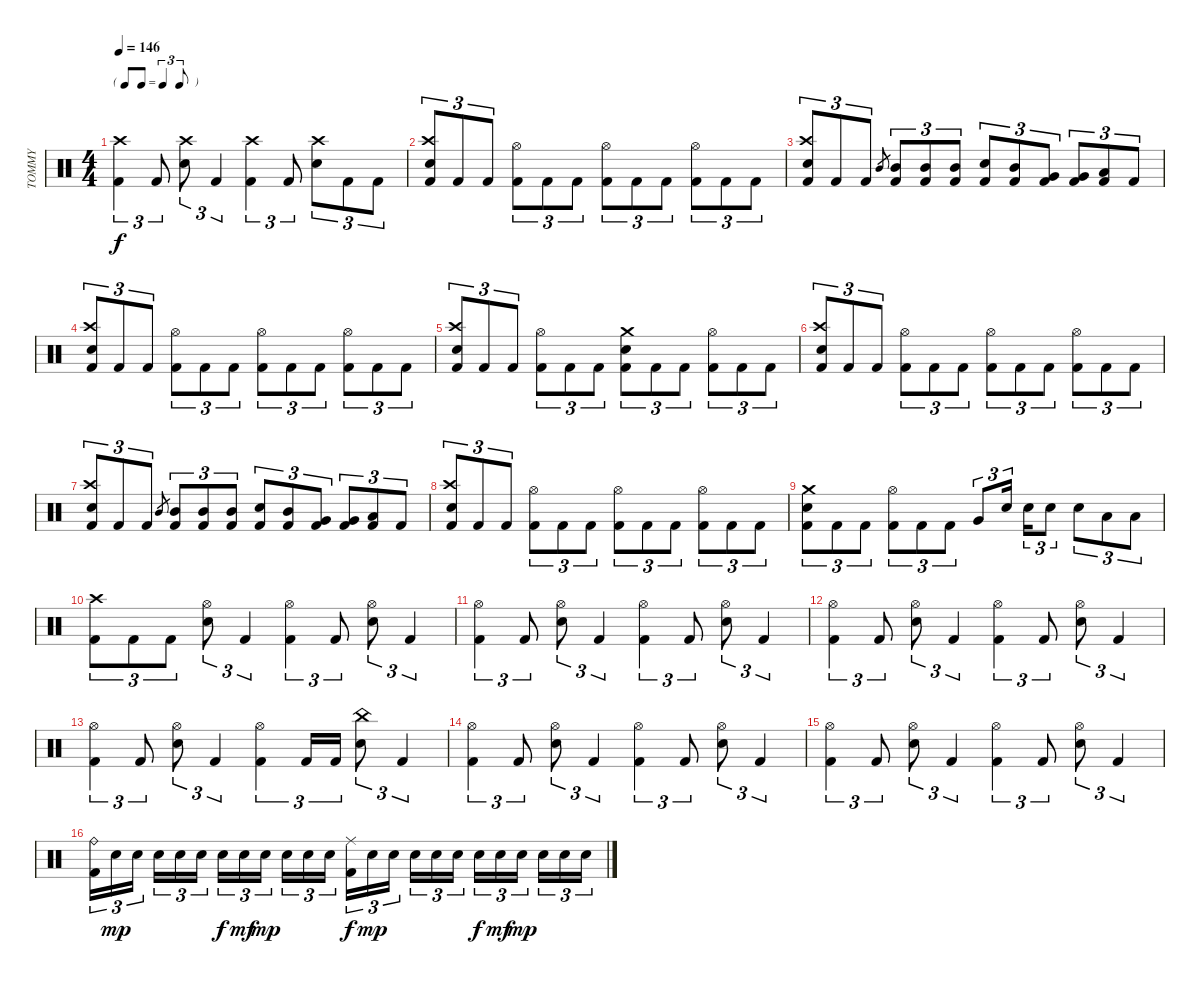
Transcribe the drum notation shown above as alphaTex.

\track ("TOMMY" "TOMMY") {instrument percussion}
\staff {score}
\articulation defaults
\ts (4 4)
\tf triplet8th
\tempo 146
\clef neutral
\ks c
("Kick (hit) 2" "Crash high (hit)").4{tu (3 2) dy f} "Kick (hit) 2".8{tu (3 2)} ("Snare (hit) 2" "Crash high (hit)").8{tu (3 2)} "Kick (hit) 2".4{tu (3 2)} ("Kick (hit) 2" "Crash high (hit)").4{tu (3 2)} "Kick (hit) 2".8{tu (3 2)} ("Snare (hit) 2" "Crash high (hit)").8{tu (3 2)} "Kick (hit) 2".8{tu (3 2)} "Kick (hit) 2".8{tu (3 2)} |
("Snare (hit) 2" "Kick (hit) 2" "Crash high (hit)").8{tu (3 2)} "Kick (hit) 2".8{tu (3 2)} "Kick (hit) 2".8{tu (3 2)} ("Kick (hit) 2" "Hi-Hat (open)").8{tu (3 2)} "Kick (hit) 2".8{tu (3 2)} "Kick (hit) 2".8{tu (3 2)} ("Kick (hit) 2" "Hi-Hat (open)").8{tu (3 2)} "Kick (hit) 2".8{tu (3 2)} "Kick (hit) 2".8{tu (3 2)} ("Kick (hit) 2" "Hi-Hat (open)").8{tu (3 2)} "Kick (hit) 2".8{tu (3 2)} "Kick (hit) 2".8{tu (3 2)} |
("Snare (hit) 2" "Kick (hit) 2" "Crash high (hit)").8{tu (3 2)} "Kick (hit) 2".8{tu (3 2)} "Kick (hit) 2".8{tu (3 2)} "Mid Tom (hit)".8{gr} ("Kick (hit) 2" "Mid Tom (hit)").8{tu (3 2)} ("Kick (hit) 2" "Mid Tom (hit)").8{tu (3 2)} ("Kick (hit) 2" "Mid Tom (hit)").8{tu (3 2)} ("Snare (hit) 2" "Kick (hit) 2").8{tu (3 2)} ("Kick (hit) 2" "Mid Tom (hit)").8{tu (3 2)} ("Kick (hit) 2" "Very Low Tom (hit)").8{tu (3 2)} ("Kick (hit) 2" "Very Low Tom (hit)").8{tu (3 2)} ("Kick (hit) 2" "Low Floor Tom (hit)").8{tu (3 2)} "Kick (hit) 2".8{tu (3 2)} |
("Snare (hit) 2" "Kick (hit) 2" "Crash high (hit)").8{tu (3 2)} "Kick (hit) 2".8{tu (3 2)} "Kick (hit) 2".8{tu (3 2)} ("Kick (hit) 2" "Hi-Hat (open)").8{tu (3 2)} "Kick (hit) 2".8{tu (3 2)} "Kick (hit) 2".8{tu (3 2)} ("Kick (hit) 2" "Hi-Hat (open)").8{tu (3 2)} "Kick (hit) 2".8{tu (3 2)} "Kick (hit) 2".8{tu (3 2)} ("Kick (hit) 2" "Hi-Hat (open)").8{tu (3 2)} "Kick (hit) 2".8{tu (3 2)} "Kick (hit) 2".8{tu (3 2)} |
("Snare (hit) 2" "Kick (hit) 2" "Crash high (hit)").8{tu (3 2)} "Kick (hit) 2".8{tu (3 2)} "Kick (hit) 2".8{tu (3 2)} ("Kick (hit) 2" "Hi-Hat (open)").8{tu (3 2)} "Kick (hit) 2".8{tu (3 2)} "Kick (hit) 2".8{tu (3 2)} ("Snare (hit) 2" "Kick (hit) 2" "Crash medium (hit)").8{tu (3 2)} "Kick (hit) 2".8{tu (3 2)} "Kick (hit) 2".8{tu (3 2)} ("Kick (hit) 2" "Hi-Hat (open)").8{tu (3 2)} "Kick (hit) 2".8{tu (3 2)} "Kick (hit) 2".8{tu (3 2)} |
("Snare (hit) 2" "Kick (hit) 2" "Crash high (hit)").8{tu (3 2)} "Kick (hit) 2".8{tu (3 2)} "Kick (hit) 2".8{tu (3 2)} ("Kick (hit) 2" "Hi-Hat (open)").8{tu (3 2)} "Kick (hit) 2".8{tu (3 2)} "Kick (hit) 2".8{tu (3 2)} ("Kick (hit) 2" "Hi-Hat (open)").8{tu (3 2)} "Kick (hit) 2".8{tu (3 2)} "Kick (hit) 2".8{tu (3 2)} ("Kick (hit) 2" "Hi-Hat (open)").8{tu (3 2)} "Kick (hit) 2".8{tu (3 2)} "Kick (hit) 2".8{tu (3 2)} |
("Snare (hit) 2" "Kick (hit) 2" "Crash high (hit)").8{tu (3 2)} "Kick (hit) 2".8{tu (3 2)} "Kick (hit) 2".8{tu (3 2)} "Mid Tom (hit)".8{gr} ("Kick (hit) 2" "Mid Tom (hit)").8{tu (3 2)} ("Kick (hit) 2" "Mid Tom (hit)").8{tu (3 2)} ("Kick (hit) 2" "Mid Tom (hit)").8{tu (3 2)} ("Snare (hit) 2" "Kick (hit) 2").8{tu (3 2)} ("Kick (hit) 2" "Mid Tom (hit)").8{tu (3 2)} ("Kick (hit) 2" "Very Low Tom (hit)").8{tu (3 2)} ("Kick (hit) 2" "Very Low Tom (hit)").8{tu (3 2)} ("Kick (hit) 2" "Low Floor Tom (hit)").8{tu (3 2)} "Kick (hit) 2".8{tu (3 2)} |
("Snare (hit) 2" "Kick (hit) 2" "Crash high (hit)").8{tu (3 2)} "Kick (hit) 2".8{tu (3 2)} "Kick (hit) 2".8{tu (3 2)} ("Kick (hit) 2" "Hi-Hat (open)").8{tu (3 2)} "Kick (hit) 2".8{tu (3 2)} "Kick (hit) 2".8{tu (3 2)} ("Kick (hit) 2" "Hi-Hat (open)").8{tu (3 2)} "Kick (hit) 2".8{tu (3 2)} "Kick (hit) 2".8{tu (3 2)} ("Kick (hit) 2" "Hi-Hat (open)").8{tu (3 2)} "Kick (hit) 2".8{tu (3 2)} "Kick (hit) 2".8{tu (3 2)} |
("Snare (hit) 2" "Kick (hit) 2" "Crash medium (hit)").8{tu (3 2)} "Kick (hit) 2".8{tu (3 2)} "Kick (hit) 2".8{tu (3 2)} ("Kick (hit) 2" "Hi-Hat (open)").8{tu (3 2)} "Kick (hit) 2".8{tu (3 2)} "Kick (hit) 2".8{tu (3 2)} "Very Low Tom (hit)".8{tu (3 2)} "Snare (hit) 2".16{tu (3 2)} "Snare (hit) 2".16{tu (3 2)} "Snare (hit) 2".8{tu (3 2)} "Snare (hit) 2".8{tu (3 2)} "Low Floor Tom (hit)".8{tu (3 2)} "Low Floor Tom (hit)".8{tu (3 2)} |
("Kick (hit) 2" "Crash high (hit)").8{tu (3 2)} "Kick (hit) 2".8{tu (3 2)} "Kick (hit) 2".8{tu (3 2)} ("Snare (hit) 2" "Hi-Hat (open)").8{tu (3 2)} "Kick (hit) 2".4{tu (3 2)} ("Kick (hit) 2" "Hi-Hat (open)").4{tu (3 2)} "Kick (hit) 2".8{tu (3 2)} ("Snare (hit) 2" "Hi-Hat (open)").8{tu (3 2)} "Kick (hit) 2".4{tu (3 2)} |
("Kick (hit) 2" "Hi-Hat (open)").4{tu (3 2)} "Kick (hit) 2".8{tu (3 2)} ("Snare (hit) 2" "Hi-Hat (open)").8{tu (3 2)} "Kick (hit) 2".4{tu (3 2)} ("Kick (hit) 2" "Hi-Hat (open)").4{tu (3 2)} "Kick (hit) 2".8{tu (3 2)} ("Snare (hit) 2" "Hi-Hat (open)").8{tu (3 2)} "Kick (hit) 2".4{tu (3 2)} |
("Kick (hit) 2" "Hi-Hat (open)").4{tu (3 2)} "Kick (hit) 2".8{tu (3 2)} ("Snare (hit) 2" "Hi-Hat (open)").8{tu (3 2)} "Kick (hit) 2".4{tu (3 2)} ("Kick (hit) 2" "Hi-Hat (open)").4{tu (3 2)} "Kick (hit) 2".8{tu (3 2)} ("Snare (hit) 2" "Hi-Hat (open)").8{tu (3 2)} "Kick (hit) 2".4{tu (3 2)} |
("Kick (hit) 2" "Hi-Hat (open)").4{tu (3 2)} "Kick (hit) 2".8{tu (3 2)} ("Snare (hit) 2" "Hi-Hat (open)").8{tu (3 2)} "Kick (hit) 2".4{tu (3 2)} ("Kick (hit) 2" "Hi-Hat (open)").4{tu (3 2)} "Kick (hit) 2".16{tu (3 2)} "Kick (hit) 2".16{tu (3 2)} ("Snare (hit) 2" "China (hit)").8{tu (3 2)} "Kick (hit) 2".4{tu (3 2)} |
("Kick (hit) 2" "Hi-Hat (open)").4{tu (3 2)} "Kick (hit) 2".8{tu (3 2)} ("Snare (hit) 2" "Hi-Hat (open)").8{tu (3 2)} "Kick (hit) 2".4{tu (3 2)} ("Kick (hit) 2" "Hi-Hat (open)").4{tu (3 2)} "Kick (hit) 2".8{tu (3 2)} ("Snare (hit) 2" "Hi-Hat (open)").8{tu (3 2)} "Kick (hit) 2".4{tu (3 2)} |
("Kick (hit) 2" "Hi-Hat (open)").4{tu (3 2)} "Kick (hit) 2".8{tu (3 2)} ("Snare (hit) 2" "Hi-Hat (open)").8{tu (3 2)} "Kick (hit) 2".4{tu (3 2)} ("Kick (hit) 2" "Hi-Hat (open)").4{tu (3 2)} "Kick (hit) 2".8{tu (3 2)} ("Snare (hit) 2" "Hi-Hat (open)").8{tu (3 2)} "Kick (hit) 2".4{tu (3 2)} |
("Kick (hit) 2" "Ride (bell)").16{tu (3 2)} "Snare (hit) 2".16{tu (3 2) dy mp} "Snare (hit) 2".16{tu (3 2)} "Snare (hit) 2".16{tu (3 2)} "Snare (hit) 2".16{tu (3 2)} "Snare (hit) 2".16{tu (3 2)} "Snare (hit) 2".16{tu (3 2) dy f} "Snare (hit) 2".16{tu (3 2) dy mf} "Snare (hit) 2".16{tu (3 2) dy mp} "Snare (hit) 2".16{tu (3 2)} "Snare (hit) 2".16{tu (3 2)} "Snare (hit) 2".16{tu (3 2)} ("Kick (hit) 2" "Ride (middle)").16{tu (3 2) dy f} "Snare (hit) 2".16{tu (3 2) dy mp} "Snare (hit) 2".16{tu (3 2)} "Snare (hit) 2".16{tu (3 2)} "Snare (hit) 2".16{tu (3 2)} "Snare (hit) 2".16{tu (3 2)} "Snare (hit) 2".16{tu (3 2) dy f} "Snare (hit) 2".16{tu (3 2) dy mf} "Snare (hit) 2".16{tu (3 2) dy mp} "Snare (hit) 2".16{tu (3 2)} "Snare (hit) 2".16{tu (3 2)} "Snare (hit) 2".16{tu (3 2)}
